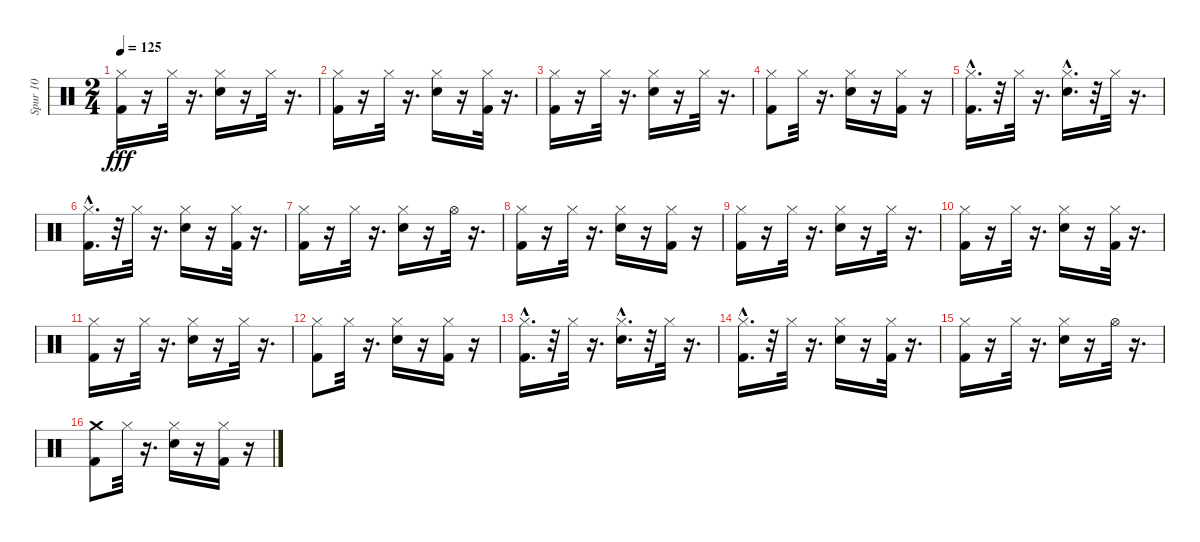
\track ("Spur 10" "Spur 10") {instrument percussion}
\staff {score}
\articulation defaults
\ts (2 4)
\tempo 125
\clef neutral
\ks c
("Kick (hit) 2" "Hi-Hat (closed)").16{dy fff} r.16 "Hi-Hat (closed)".32 r.16{d} ("Snare (hit) 2" "Hi-Hat (closed)").16 r.16 "Hi-Hat (closed)".32 r.16{d} |
("Kick (hit) 2" "Hi-Hat (closed)").16 r.16 "Hi-Hat (closed)".32 r.16{d} ("Snare (hit) 2" "Hi-Hat (closed)").16 r.16 ("Kick (hit) 2" "Hi-Hat (closed)").32 r.16{d} |
("Kick (hit) 2" "Hi-Hat (closed)").16 r.16 "Hi-Hat (closed)".32 r.16{d} ("Snare (hit) 2" "Hi-Hat (closed)").16 r.16 "Hi-Hat (closed)".32 r.16{d} |
("Kick (hit) 2" "Hi-Hat (closed)").8 "Hi-Hat (closed)".32 r.16{d} ("Snare (hit) 2" "Hi-Hat (closed)").16 r.16 ("Kick (hit) 2" "Hi-Hat (closed)").16 r.16 |
("Kick (hit) 2"{hac} "Hi-Hat (closed)").16{d} r.32 "Hi-Hat (closed)".32 r.16{d} ("Snare (hit) 2"{hac} "Hi-Hat (closed)").16{d} r.32 "Hi-Hat (closed)".32 r.16{d} |
("Kick (hit) 2"{hac} "Hi-Hat (closed)").16{d} r.32 "Hi-Hat (closed)".32 r.16{d} ("Snare (hit) 2" "Hi-Hat (closed)").16 r.16 ("Kick (hit) 2" "Hi-Hat (closed)").32 r.16{d} |
("Kick (hit) 2" "Hi-Hat (closed)").16 r.16 "Hi-Hat (closed)".32 r.16{d} ("Snare (hit) 2" "Hi-Hat (closed)").16 r.16 "Hi-Hat (open)".32 r.16{d} |
("Kick (hit) 2" "Hi-Hat (closed)").16 r.16 "Hi-Hat (closed)".32 r.16{d} ("Snare (hit) 2" "Hi-Hat (closed)").16 r.16 ("Kick (hit) 2" "Hi-Hat (closed)").16 r.16 |
("Kick (hit) 2" "Hi-Hat (closed)").16 r.16 "Hi-Hat (closed)".32 r.16{d} ("Snare (hit) 2" "Hi-Hat (closed)").16 r.16 "Hi-Hat (closed)".32 r.16{d} |
("Kick (hit) 2" "Hi-Hat (closed)").16 r.16 "Hi-Hat (closed)".32 r.16{d} ("Snare (hit) 2" "Hi-Hat (closed)").16 r.16 ("Kick (hit) 2" "Hi-Hat (closed)").32 r.16{d} |
("Kick (hit) 2" "Hi-Hat (closed)").16 r.16 "Hi-Hat (closed)".32 r.16{d} ("Snare (hit) 2" "Hi-Hat (closed)").16 r.16 "Hi-Hat (closed)".32 r.16{d} |
("Kick (hit) 2" "Hi-Hat (closed)").8 "Hi-Hat (closed)".32 r.16{d} ("Snare (hit) 2" "Hi-Hat (closed)").16 r.16 ("Kick (hit) 2" "Hi-Hat (closed)").16 r.16 |
("Kick (hit) 2"{hac} "Hi-Hat (closed)").16{d} r.32 "Hi-Hat (closed)".32 r.16{d} ("Snare (hit) 2"{hac} "Hi-Hat (closed)").16{d} r.32 "Hi-Hat (closed)".32 r.16{d} |
("Kick (hit) 2"{hac} "Hi-Hat (closed)").16{d} r.32 "Hi-Hat (closed)".32 r.16{d} ("Snare (hit) 2" "Hi-Hat (closed)").16 r.16 ("Kick (hit) 2" "Hi-Hat (closed)").32 r.16{d} |
("Kick (hit) 2" "Hi-Hat (closed)").16 r.16 "Hi-Hat (closed)".32 r.16{d} ("Snare (hit) 2" "Hi-Hat (closed)").16 r.16 "Hi-Hat (open)".32 r.16{d} |
("Kick (hit) 2" "Crash medium (hit)").8 "Hi-Hat (closed)".32 r.16{d} ("Snare (hit) 2" "Hi-Hat (closed)").16 r.16 ("Kick (hit) 2" "Hi-Hat (closed)").16 r.16
